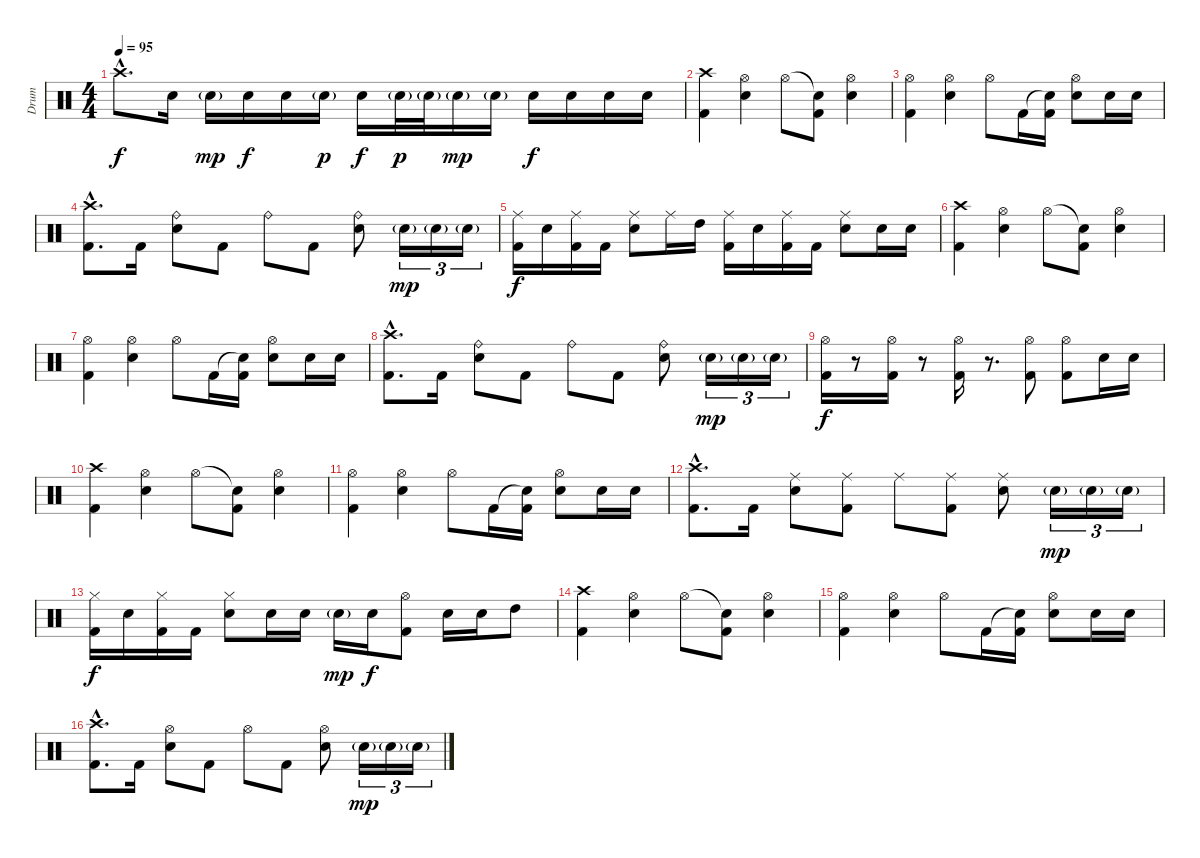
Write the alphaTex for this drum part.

\track ("Drum" "Drum") {instrument percussion}
\staff {score}
\articulation defaults
\ts (4 4)
\tempo 95
\clef neutral
\ks c "Crash high (hit)"{hac}.8{d dy f} "Electric Snare (hit)".16 "Electric Snare (hit)"{g}.16{dy mp} "Electric Snare (hit)".16{dy f} "Electric Snare (hit)".16 "Electric Snare (hit)"{g}.16{dy p} "Electric Snare (hit)".16{dy f} "Electric Snare (hit)"{g}.32{dy p} "Electric Snare (hit)"{g}.32 "Electric Snare (hit)"{g}.16{dy mp} "Electric Snare (hit)"{g}.16 "Electric Snare (hit)".16{dy f} "Electric Snare (hit)".16 "Electric Snare (hit)".16 "Electric Snare (hit)".16
|
("Crash high (hit)" "Kick (hit) 2").4 ("Hi-Hat (open)" "Electric Snare (hit)").4 "Hi-Hat (open)".8 ("Snare (hit)"{t} "Kick (hit) 2").8 ("Hi-Hat (open)" "Electric Snare (hit)").4 |
("Hi-Hat (open)" "Kick (hit) 2").4 ("Hi-Hat (open)" "Electric Snare (hit)").4 "Hi-Hat (open)".8 "Kick (hit) 2".16 ("Snare (hit)"{t} "Kick (hit) 2").16 ("Hi-Hat (open)" "Electric Snare (hit)").8 "Electric Snare (hit)".16 "Electric Snare (hit)".16 |
("Crash high (hit)"{hac} "Kick (hit) 2"{hac}).8{d} "Kick (hit) 2".16 ("Ride (bell)" "Electric Snare (hit)").8 "Kick (hit) 2".8 "Ride (bell)".8 "Kick (hit) 2".8 ("Ride (bell)" "Electric Snare (hit)").8 "Electric Snare (hit)"{g}.16{tu (3 2) dy mp} "Electric Snare (hit)"{g}.16{tu (3 2)} "Electric Snare (hit)"{g}.16{tu (3 2)} |
("Ride (middle)" "Kick (hit) 2").16{dy f} "Electric Snare (hit)".16 ("Ride (middle)" "Kick (hit) 2").16 "Kick (hit) 2".16 ("Ride (middle)" "Electric Snare (hit)").8 "Ride (middle)".16 "High Tom (hit)".16 ("Ride (middle)" "Kick (hit) 2").16 "Electric Snare (hit)".16 ("Ride (middle)" "Kick (hit) 2").16 "Kick (hit) 2".16 ("Ride (middle)" "Electric Snare (hit)").8 "Electric Snare (hit)".16 "Electric Snare (hit)".16 |
("Crash high (hit)" "Kick (hit) 2").4 ("Hi-Hat (open)" "Electric Snare (hit)").4 "Hi-Hat (open)".8 ("Snare (hit)"{t} "Kick (hit) 2").8 ("Hi-Hat (open)" "Electric Snare (hit)").4 |
("Hi-Hat (open)" "Kick (hit) 2").4 ("Hi-Hat (open)" "Electric Snare (hit)").4 "Hi-Hat (open)".8 "Kick (hit) 2".16 ("Snare (hit)"{t} "Kick (hit) 2").16 ("Hi-Hat (open)" "Electric Snare (hit)").8 "Electric Snare (hit)".16 "Electric Snare (hit)".16 |
("Crash high (hit)"{hac} "Kick (hit) 2"{hac}).8{d} "Kick (hit) 2".16 ("Ride (bell)" "Electric Snare (hit)").8 "Kick (hit) 2".8 "Ride (bell)".8 "Kick (hit) 2".8 ("Ride (bell)" "Electric Snare (hit)").8 "Electric Snare (hit)"{g}.16{tu (3 2) dy mp} "Electric Snare (hit)"{g}.16{tu (3 2)} "Electric Snare (hit)"{g}.16{tu (3 2)} |
("Hi-Hat (open)" "Kick (hit) 2").16{dy f} r.8 ("Hi-Hat (open)" "Kick (hit) 2").16 r.8 ("Hi-Hat (open)" "Kick (hit) 2").16 r.8{d} ("Hi-Hat (open)" "Kick (hit) 2").8 ("Hi-Hat (open)" "Kick (hit) 2").8 "Electric Snare (hit)".16 "Electric Snare (hit)".16 |
("Crash high (hit)" "Kick (hit) 2").4 ("Hi-Hat (open)" "Electric Snare (hit)").4 "Hi-Hat (open)".8 ("Snare (hit)"{t} "Kick (hit) 2").8 ("Hi-Hat (open)" "Electric Snare (hit)").4 |
("Hi-Hat (open)" "Kick (hit) 2").4 ("Hi-Hat (open)" "Electric Snare (hit)").4 "Hi-Hat (open)".8 "Kick (hit) 2".16 ("Snare (hit)"{t} "Kick (hit) 2").16 ("Hi-Hat (open)" "Electric Snare (hit)").8 "Electric Snare (hit)".16 "Electric Snare (hit)".16 |
("Crash high (hit)"{hac} "Kick (hit) 2"{hac}).8{d} "Kick (hit) 2".16 ("Ride (middle)" "Electric Snare (hit)").8 ("Ride (middle)" "Kick (hit) 2").8 "Ride (middle)".8 ("Ride (middle)" "Kick (hit) 2").8 ("Ride (middle)" "Electric Snare (hit)").8 "Electric Snare (hit)"{g}.16{tu (3 2) dy mp} "Electric Snare (hit)"{g}.16{tu (3 2)} "Electric Snare (hit)"{g}.16{tu (3 2)} |
("Hi-Hat (closed)" "Kick (hit) 2").16{dy f} "Electric Snare (hit)".16 ("Hi-Hat (closed)" "Kick (hit) 2").16 "Kick (hit) 2".16 ("Hi-Hat (closed)" "Electric Snare (hit)").8 "Electric Snare (hit)".16 "Electric Snare (hit)".16 "Electric Snare (hit)"{g}.16{dy mp} "Electric Snare (hit)".16{dy f} ("Hi-Hat (open)" "Kick (hit) 2").8 "Electric Snare (hit)".16 "Electric Snare (hit)".16 "High Tom (hit)".8 |
("Crash high (hit)" "Kick (hit) 2").4 ("Hi-Hat (open)" "Electric Snare (hit)").4 "Hi-Hat (open)".8 ("Snare (hit)"{t} "Kick (hit) 2").8 ("Hi-Hat (open)" "Electric Snare (hit)").4 |
("Hi-Hat (open)" "Kick (hit) 2").4 ("Hi-Hat (open)" "Electric Snare (hit)").4 "Hi-Hat (open)".8 "Kick (hit) 2".16 ("Snare (hit)"{t} "Kick (hit) 2").16 ("Hi-Hat (open)" "Electric Snare (hit)").8 "Electric Snare (hit)".16 "Electric Snare (hit)".16 |
("Crash high (hit)"{hac} "Kick (hit) 2"{hac}).8{d} "Kick (hit) 2".16 ("Hi-Hat (open)" "Electric Snare (hit)").8 "Kick (hit) 2".8 "Hi-Hat (open)".8 "Kick (hit) 2".8 ("Hi-Hat (open)" "Electric Snare (hit)").8 "Electric Snare (hit)"{g}.16{tu (3 2) dy mp} "Electric Snare (hit)"{g}.16{tu (3 2)} "Electric Snare (hit)"{g}.16{tu (3 2)}
